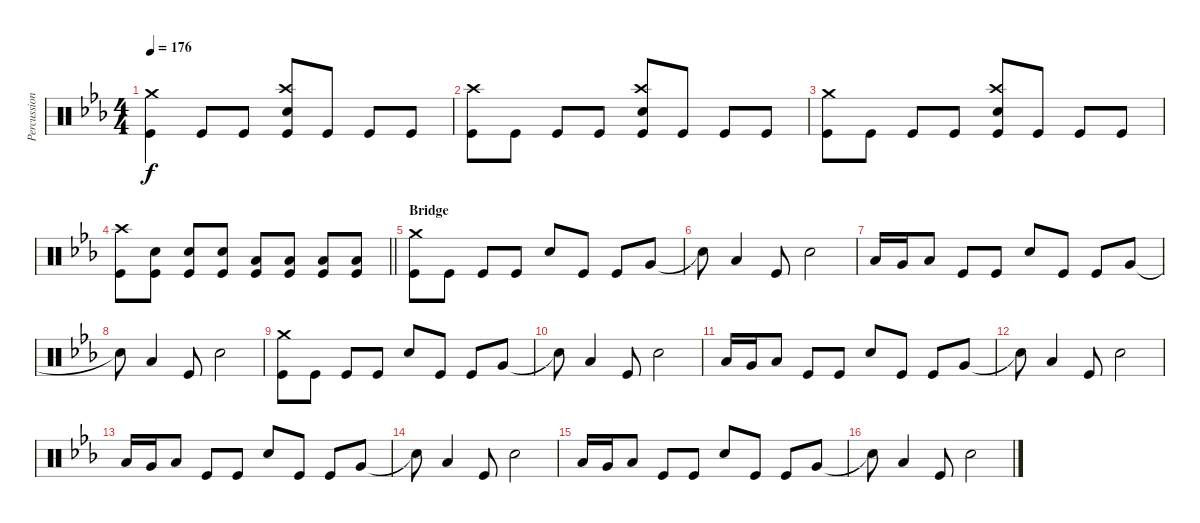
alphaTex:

\track ("Percussion" "Percussion") {instrument percussion}
\staff {score}
\articulation defaults
\ts (4 4)
\tempo 176
\clef neutral
\ks eb
("Crash medium (hit)" "Kick (hit)").4{dy f} "Kick (hit)".8 "Kick (hit)".8 ("Crash high (hit)" "Electric Snare (hit)" "Kick (hit)").8 "Kick (hit)".8 "Kick (hit)".8 "Kick (hit)".8 |
("Crash high (hit)" "Kick (hit)").8 "Kick (hit)".8 "Kick (hit)".8 "Kick (hit)".8 ("Crash high (hit)" "Electric Snare (hit)" "Kick (hit)").8 "Kick (hit)".8 "Kick (hit)".8 "Kick (hit)".8 |
("Crash medium (hit)" "Kick (hit)").8 "Kick (hit)".8 "Kick (hit)".8 "Kick (hit)".8 ("Crash high (hit)" "Electric Snare (hit)" "Kick (hit)").8 "Kick (hit)".8 "Kick (hit)".8 "Kick (hit)".8 |
\barLineRight lightlight
("Crash high (hit)" "Kick (hit)").8 ("Electric Snare (hit)" "Kick (hit)").8 ("Electric Snare (hit)" "Kick (hit)").8 ("Electric Snare (hit)" "Kick (hit)").8 ("Low Floor Tom (hit)" "Kick (hit)").8 ("Low Floor Tom (hit)" "Kick (hit)").8 ("Low Floor Tom (hit)" "Kick (hit)").8 ("Low Floor Tom (hit)" "Kick (hit)").8 |
\section ("" "Bridge")
("Crash medium (hit)" "Kick (hit)").8 "Kick (hit)".8 "Kick (hit)".8 "Kick (hit)".8 "Electric Snare (hit)".8 "Kick (hit)".8 "Kick (hit)".8 "Very Low Tom (hit)".8 |
"Snare (hit)"{t}.8 "Low Floor Tom (hit)".4 "Kick (hit)".8 "Electric Snare (hit)".2 |
"Low Floor Tom (hit)".16 "Very Low Tom (hit)".16 "Low Floor Tom (hit)".8 "Kick (hit)".8 "Kick (hit)".8 "Electric Snare (hit)".8 "Kick (hit)".8 "Kick (hit)".8 "Very Low Tom (hit)".8 |
"Snare (hit)"{t}.8 "Low Floor Tom (hit)".4 "Kick (hit)".8 "Electric Snare (hit)".2 |
("Crash medium (hit)" "Kick (hit)").8 "Kick (hit)".8 "Kick (hit)".8 "Kick (hit)".8 "Electric Snare (hit)".8 "Kick (hit)".8 "Kick (hit)".8 "Very Low Tom (hit)".8 |
"Snare (hit)"{t}.8 "Low Floor Tom (hit)".4 "Kick (hit)".8 "Electric Snare (hit)".2 |
"Low Floor Tom (hit)".16 "Very Low Tom (hit)".16 "Low Floor Tom (hit)".8 "Kick (hit)".8 "Kick (hit)".8 "Electric Snare (hit)".8 "Kick (hit)".8 "Kick (hit)".8 "Very Low Tom (hit)".8 |
"Snare (hit)"{t}.8 "Low Floor Tom (hit)".4 "Kick (hit)".8 "Electric Snare (hit)".2 |
"Low Floor Tom (hit)".16 "Very Low Tom (hit)".16 "Low Floor Tom (hit)".8 "Kick (hit)".8 "Kick (hit)".8 "Electric Snare (hit)".8 "Kick (hit)".8 "Kick (hit)".8 "Very Low Tom (hit)".8 |
"Snare (hit)"{t}.8 "Low Floor Tom (hit)".4 "Kick (hit)".8 "Electric Snare (hit)".2 |
"Low Floor Tom (hit)".16 "Very Low Tom (hit)".16 "Low Floor Tom (hit)".8 "Kick (hit)".8 "Kick (hit)".8 "Electric Snare (hit)".8 "Kick (hit)".8 "Kick (hit)".8 "Very Low Tom (hit)".8 |
"Snare (hit)"{t}.8 "Low Floor Tom (hit)".4 "Kick (hit)".8 "Electric Snare (hit)".2
